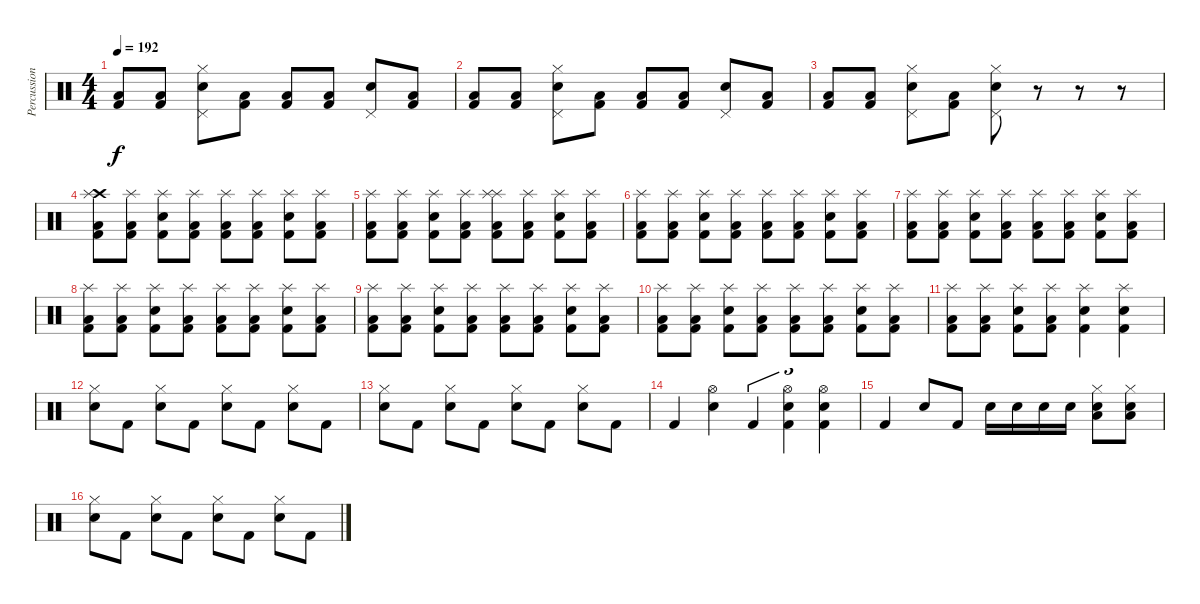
\track ("Percussions" "Percussion") {instrument percussion}
\staff {score}
\articulation defaults
\ts (4 4)
\tempo 192
\clef neutral
\ks c
("Low Floor Tom (hit)" "Kick (hit) 2").8{dy f} ("Low Floor Tom (hit)" "Kick (hit) 2").8 ("Snare (hit) 2" "Pedal Hi-Hat (hit)" "Hi-Hat (closed)").8 ("Low Floor Tom (hit)" "Kick (hit) 2").8 ("Low Floor Tom (hit)" "Kick (hit) 2").8 ("Low Floor Tom (hit)" "Kick (hit) 2").8 ("Snare (hit) 2" "Pedal Hi-Hat (hit)").8 ("Low Floor Tom (hit)" "Kick (hit) 2").8 |
("Low Floor Tom (hit)" "Kick (hit) 2").8 ("Low Floor Tom (hit)" "Kick (hit) 2").8 ("Snare (hit) 2" "Pedal Hi-Hat (hit)" "Hi-Hat (closed)").8 ("Low Floor Tom (hit)" "Kick (hit) 2").8 ("Low Floor Tom (hit)" "Kick (hit) 2").8 ("Low Floor Tom (hit)" "Kick (hit) 2").8 ("Snare (hit) 2" "Pedal Hi-Hat (hit)").8 ("Low Floor Tom (hit)" "Kick (hit) 2").8 |
("Low Floor Tom (hit)" "Kick (hit) 2").8 ("Low Floor Tom (hit)" "Kick (hit) 2").8 ("Snare (hit) 2" "Pedal Hi-Hat (hit)" "Hi-Hat (closed)").8 ("Low Floor Tom (hit)" "Kick (hit) 2").8 ("Snare (hit) 2" "Pedal Hi-Hat (hit)" "Hi-Hat (closed)").8 r.8 r.8 r.8 |
("Low Floor Tom (hit)" "Crash high (hit)" "Kick (hit) 2" "Splash (hit)").8 ("Low Floor Tom (hit)" "Kick (hit) 2" "Splash (hit)").8 ("Snare (hit) 2" "Kick (hit) 2" "Splash (hit)").8 ("Low Floor Tom (hit)" "Kick (hit) 2" "Splash (hit)").8 ("Low Floor Tom (hit)" "Kick (hit) 2" "Splash (hit)").8 ("Low Floor Tom (hit)" "Kick (hit) 2" "Splash (hit)").8 ("Snare (hit) 2" "Kick (hit) 2" "Splash (hit)").8 ("Low Floor Tom (hit)" "Kick (hit) 2" "Splash (hit)").8 |
("Low Floor Tom (hit)" "Kick (hit) 2" "Splash (hit)").8 ("Low Floor Tom (hit)" "Kick (hit) 2" "Splash (hit)").8 ("Snare (hit) 2" "Kick (hit) 2" "Splash (hit)").8 ("Low Floor Tom (hit)" "Kick (hit) 2" "Splash (hit)").8 ("Low Floor Tom (hit)" "Kick (hit) 2" "Splash (hit)" "Splash (hit)").8 ("Low Floor Tom (hit)" "Kick (hit) 2" "Splash (hit)").8 ("Snare (hit) 2" "Kick (hit) 2" "Splash (hit)").8 ("Low Floor Tom (hit)" "Kick (hit) 2" "Splash (hit)").8 |
("Low Floor Tom (hit)" "Kick (hit) 2" "Splash (hit)").8 ("Low Floor Tom (hit)" "Kick (hit) 2" "Splash (hit)").8 ("Snare (hit) 2" "Kick (hit) 2" "Splash (hit)").8 ("Low Floor Tom (hit)" "Kick (hit) 2" "Splash (hit)").8 ("Low Floor Tom (hit)" "Kick (hit) 2" "Splash (hit)").8 ("Low Floor Tom (hit)" "Kick (hit) 2" "Splash (hit)").8 ("Snare (hit) 2" "Kick (hit) 2" "Splash (hit)").8 ("Low Floor Tom (hit)" "Kick (hit) 2" "Splash (hit)").8 |
("Low Floor Tom (hit)" "Kick (hit) 2" "Splash (hit)").8 ("Low Floor Tom (hit)" "Kick (hit) 2" "Splash (hit)").8 ("Snare (hit) 2" "Kick (hit) 2" "Splash (hit)").8 ("Low Floor Tom (hit)" "Kick (hit) 2" "Splash (hit)").8 ("Low Floor Tom (hit)" "Kick (hit) 2" "Splash (hit)").8 ("Low Floor Tom (hit)" "Kick (hit) 2" "Splash (hit)").8 ("Snare (hit) 2" "Kick (hit) 2" "Splash (hit)").8 ("Low Floor Tom (hit)" "Kick (hit) 2" "Splash (hit)").8 |
("Low Floor Tom (hit)" "Kick (hit) 2" "Splash (hit)").8 ("Low Floor Tom (hit)" "Kick (hit) 2" "Splash (hit)").8 ("Snare (hit) 2" "Kick (hit) 2" "Splash (hit)").8 ("Low Floor Tom (hit)" "Kick (hit) 2" "Splash (hit)").8 ("Low Floor Tom (hit)" "Kick (hit) 2" "Splash (hit)").8 ("Low Floor Tom (hit)" "Kick (hit) 2" "Splash (hit)").8 ("Snare (hit) 2" "Kick (hit) 2" "Splash (hit)").8 ("Low Floor Tom (hit)" "Kick (hit) 2" "Splash (hit)").8 |
("Low Floor Tom (hit)" "Kick (hit) 2" "Splash (hit)").8 ("Low Floor Tom (hit)" "Kick (hit) 2" "Splash (hit)").8 ("Snare (hit) 2" "Kick (hit) 2" "Splash (hit)").8 ("Low Floor Tom (hit)" "Kick (hit) 2" "Splash (hit)").8 ("Low Floor Tom (hit)" "Kick (hit) 2" "Splash (hit)").8 ("Low Floor Tom (hit)" "Kick (hit) 2" "Splash (hit)").8 ("Snare (hit) 2" "Kick (hit) 2" "Splash (hit)").8 ("Low Floor Tom (hit)" "Kick (hit) 2" "Splash (hit)").8 |
("Low Floor Tom (hit)" "Kick (hit) 2" "Splash (hit)").8 ("Low Floor Tom (hit)" "Kick (hit) 2" "Splash (hit)").8 ("Snare (hit) 2" "Kick (hit) 2" "Splash (hit)").8 ("Low Floor Tom (hit)" "Kick (hit) 2" "Splash (hit)").8 ("Low Floor Tom (hit)" "Kick (hit) 2" "Splash (hit)").8 ("Low Floor Tom (hit)" "Kick (hit) 2" "Splash (hit)").8 ("Snare (hit) 2" "Kick (hit) 2" "Splash (hit)").8 ("Low Floor Tom (hit)" "Kick (hit) 2" "Splash (hit)").8 |
("Low Floor Tom (hit)" "Kick (hit) 2" "Splash (hit)").8 ("Low Floor Tom (hit)" "Kick (hit) 2" "Splash (hit)").8 ("Snare (hit) 2" "Kick (hit) 2" "Splash (hit)").8 ("Low Floor Tom (hit)" "Kick (hit) 2" "Splash (hit)").8 ("Snare (hit) 2" "Kick (hit) 2" "Splash (hit)").4 ("Snare (hit) 2" "Kick (hit) 2" "Splash (hit)").4 |
("Snare (hit) 2" "Hi-Hat (closed)").8 "Kick (hit) 2".8 ("Snare (hit) 2" "Hi-Hat (closed)").8 "Kick (hit) 2".8 ("Snare (hit) 2" "Hi-Hat (closed)").8 "Kick (hit) 2".8 ("Snare (hit) 2" "Hi-Hat (closed)").8 "Kick (hit) 2".8 |
("Snare (hit) 2" "Hi-Hat (closed)").8 "Kick (hit) 2".8 ("Snare (hit) 2" "Hi-Hat (closed)").8 "Kick (hit) 2".8 ("Snare (hit) 2" "Hi-Hat (closed)").8 "Kick (hit) 2".8 ("Snare (hit) 2" "Hi-Hat (closed)").8 "Kick (hit) 2".8 |
"Kick (hit) 2".4 ("Snare (hit) 2" "Hi-Hat (open)").4 "Kick (hit) 2".4{tu (3 2)} ("Snare (hit) 2" "Kick (hit) 2" "Hi-Hat (open)").4{tu (3 2)} ("Snare (hit) 2" "Kick (hit) 2" "Hi-Hat (open)").4{tu (3 2)} |
"Kick (hit) 2".4 "Snare (hit) 2".8 "Kick (hit) 2".8 "Snare (hit) 2".16 "Snare (hit) 2".16 "Snare (hit) 2".16 "Snare (hit) 2".16 ("Snare (hit) 2" "Low Floor Tom (hit)" "Hi-Hat (closed)").8 ("Snare (hit) 2" "Low Floor Tom (hit)" "Hi-Hat (closed)").8 |
("Snare (hit) 2" "Hi-Hat (closed)").8 "Kick (hit) 2".8 ("Snare (hit) 2" "Hi-Hat (closed)").8 "Kick (hit) 2".8 ("Snare (hit) 2" "Hi-Hat (closed)").8 "Kick (hit) 2".8 ("Snare (hit) 2" "Hi-Hat (closed)").8 "Kick (hit) 2".8
